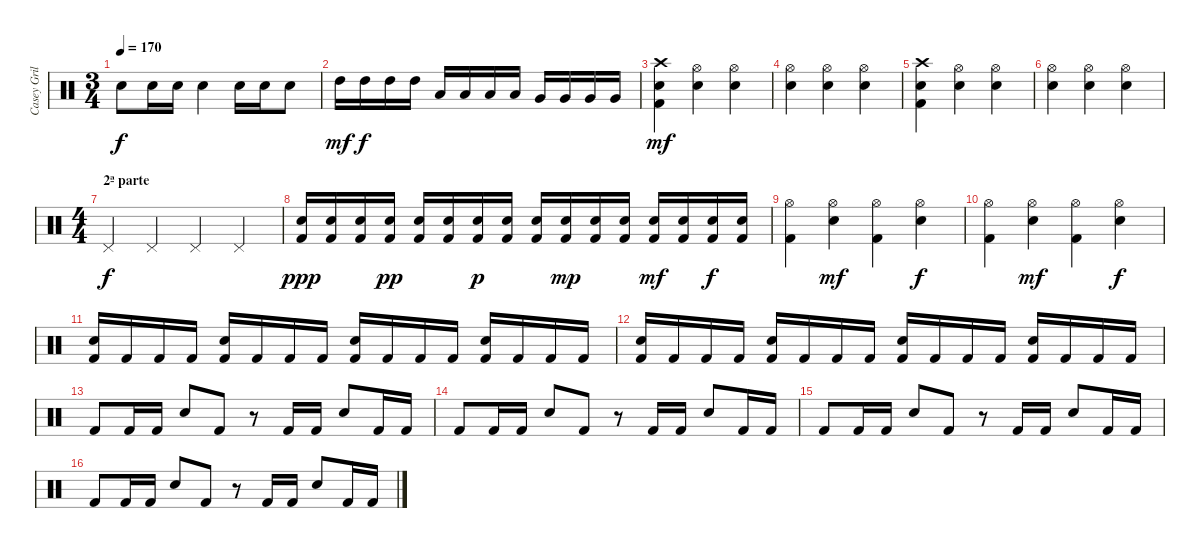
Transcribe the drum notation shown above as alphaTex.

\track ("Casey Grillo" "Casey Gril") {instrument percussion}
\staff {score}
\articulation defaults
\ts (3 4)
\tempo 170
\clef neutral
\ks c "Snare (hit)"{t}.8{dy f} "Snare (hit) 2".16 "Snare (hit) 2".16 "Snare (hit) 2".4 "Snare (hit) 2".16 "Snare (hit) 2".16 "Snare (hit) 2".8
|
"High Tom (hit)".16{dy mf} "High Tom (hit)".16{dy f} "High Tom (hit)".16 "High Tom (hit)".16 "Low Tom (hit)".16 "Low Tom (hit)".16 "Low Tom (hit)".16 "Low Tom (hit)".16 "Very Low Tom (hit)".16 "Very Low Tom (hit)".16 "Very Low Tom (hit)".16 "Very Low Tom (hit)".16 |
("Snare (hit) 2" "Kick (hit) 2" "Crash high (hit)").4{dy mf} ("Snare (hit) 2" "Hi-Hat (open)").4 ("Snare (hit) 2" "Hi-Hat (open)").4 |
("Snare (hit) 2" "Hi-Hat (open)").4 ("Snare (hit) 2" "Hi-Hat (open)").4 ("Snare (hit) 2" "Hi-Hat (open)").4 |
("Snare (hit) 2" "Kick (hit) 2" "Crash high (hit)").4 ("Snare (hit) 2" "Hi-Hat (open)").4 ("Snare (hit) 2" "Hi-Hat (open)").4 |
("Snare (hit) 2" "Hi-Hat (open)").4 ("Snare (hit) 2" "Hi-Hat (open)").4 ("Snare (hit) 2" "Hi-Hat (open)").4 |
\ts (4 4)
\section ("" "2ª parte")
"Pedal Hi-Hat (hit)".4{dy f} "Pedal Hi-Hat (hit)".4 "Pedal Hi-Hat (hit)".4 "Pedal Hi-Hat (hit)".4 |
("Snare (hit) 2" "Kick (hit) 2").16{dy ppp} ("Snare (hit) 2" "Kick (hit) 2").16 ("Snare (hit) 2" "Kick (hit) 2").16 ("Snare (hit) 2" "Kick (hit) 2").16{dy pp} ("Snare (hit) 2" "Kick (hit) 2").16 ("Snare (hit) 2" "Kick (hit) 2").16 ("Snare (hit) 2" "Kick (hit) 2").16{dy p} ("Snare (hit) 2" "Kick (hit) 2").16 ("Snare (hit) 2" "Kick (hit) 2").16 ("Snare (hit) 2" "Kick (hit) 2").16{dy mp} ("Snare (hit) 2" "Kick (hit) 2").16 ("Snare (hit) 2" "Kick (hit) 2").16 ("Snare (hit) 2" "Kick (hit) 2").16{dy mf} ("Snare (hit) 2" "Kick (hit) 2").16 ("Snare (hit) 2" "Kick (hit) 2").16{dy f} ("Snare (hit) 2" "Kick (hit) 2").16 |
("Hi-Hat (open)" "Kick (hit) 2").4 ("Hi-Hat (open)" "Snare (hit) 2").4{dy mf} ("Hi-Hat (open)" "Kick (hit) 2").4 ("Hi-Hat (open)" "Snare (hit) 2").4{dy f} |
("Hi-Hat (open)" "Kick (hit) 2").4 ("Hi-Hat (open)" "Snare (hit) 2").4{dy mf} ("Hi-Hat (open)" "Kick (hit) 2").4 ("Hi-Hat (open)" "Snare (hit) 2").4{dy f} |
("Snare (hit) 2" "Kick (hit) 2").16 "Kick (hit) 2".16 "Kick (hit) 2".16 "Kick (hit) 2".16 ("Snare (hit) 2" "Kick (hit) 2").16 "Kick (hit) 2".16 "Kick (hit) 2".16 "Kick (hit) 2".16 ("Snare (hit) 2" "Kick (hit) 2").16 "Kick (hit) 2".16 "Kick (hit) 2".16 "Kick (hit) 2".16 ("Snare (hit) 2" "Kick (hit) 2").16 "Kick (hit) 2".16 "Kick (hit) 2".16 "Kick (hit) 2".16 |
("Snare (hit) 2" "Kick (hit) 2").16 "Kick (hit) 2".16 "Kick (hit) 2".16 "Kick (hit) 2".16 ("Snare (hit) 2" "Kick (hit) 2").16 "Kick (hit) 2".16 "Kick (hit) 2".16 "Kick (hit) 2".16 ("Snare (hit) 2" "Kick (hit) 2").16 "Kick (hit) 2".16 "Kick (hit) 2".16 "Kick (hit) 2".16 ("Snare (hit) 2" "Kick (hit) 2").16 "Kick (hit) 2".16 "Kick (hit) 2".16 "Kick (hit) 2".16 |
"Kick (hit) 2".8 "Kick (hit) 2".16 "Kick (hit) 2".16 "Snare (hit) 2".8 "Kick (hit) 2".8 r.8 "Kick (hit) 2".16 "Kick (hit) 2".16 "Snare (hit) 2".8 "Kick (hit) 2".16 "Kick (hit) 2".16 |
"Kick (hit) 2".8 "Kick (hit) 2".16 "Kick (hit) 2".16 "Snare (hit) 2".8 "Kick (hit) 2".8 r.8 "Kick (hit) 2".16 "Kick (hit) 2".16 "Snare (hit) 2".8 "Kick (hit) 2".16 "Kick (hit) 2".16 |
"Kick (hit) 2".8 "Kick (hit) 2".16 "Kick (hit) 2".16 "Snare (hit) 2".8 "Kick (hit) 2".8 r.8 "Kick (hit) 2".16 "Kick (hit) 2".16 "Snare (hit) 2".8 "Kick (hit) 2".16 "Kick (hit) 2".16 |
"Kick (hit) 2".8 "Kick (hit) 2".16 "Kick (hit) 2".16 "Snare (hit) 2".8 "Kick (hit) 2".8 r.8 "Kick (hit) 2".16 "Kick (hit) 2".16 "Snare (hit) 2".8 "Kick (hit) 2".16 "Kick (hit) 2".16
